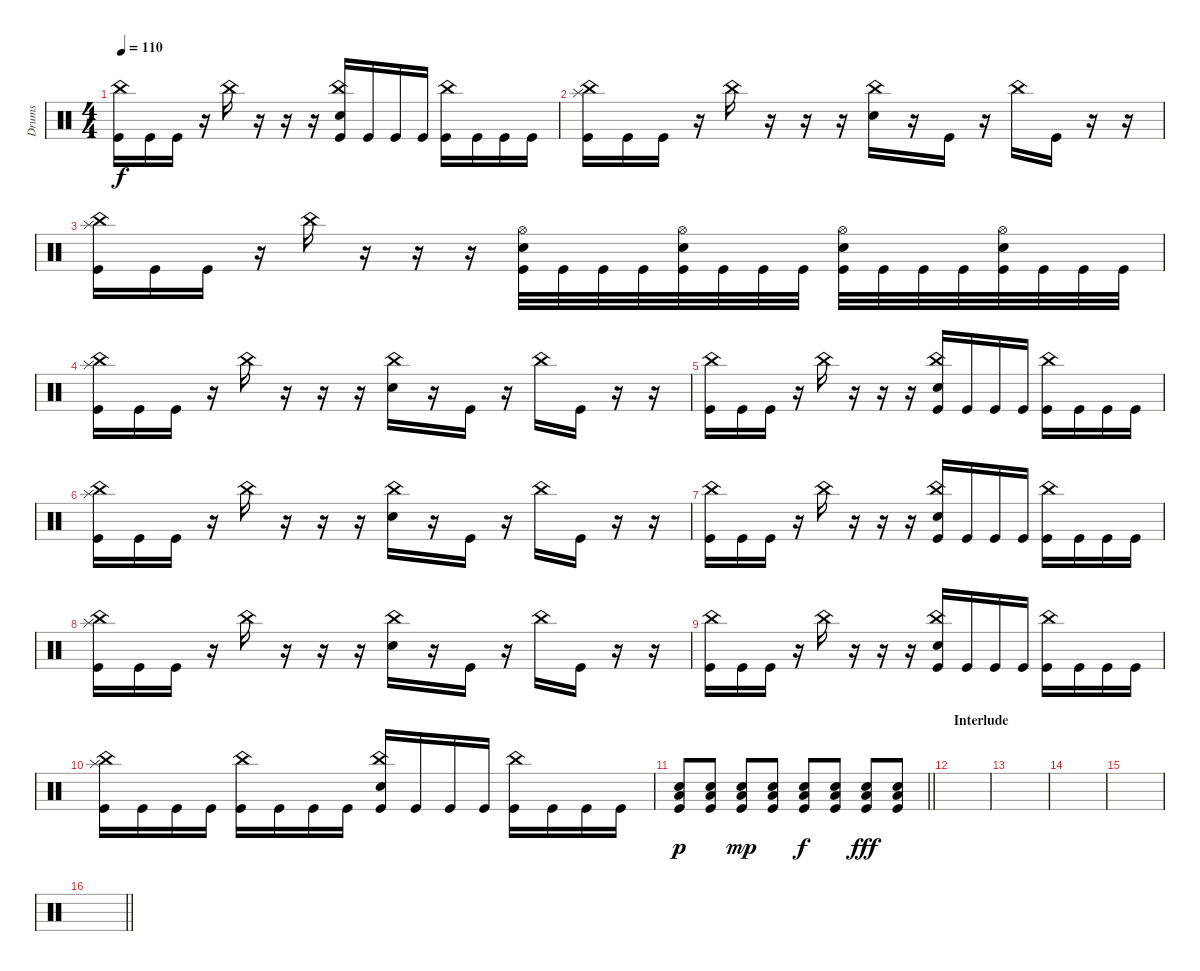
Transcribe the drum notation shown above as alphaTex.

\track ("Drums" "Drums") {instrument percussion}
\staff {score}
\articulation defaults
\ts (4 4)
\tempo 110
\clef neutral
\ks c
("Kick (hit)" "China (hit)").16{dy f} "Kick (hit)".16 "Kick (hit)".16 r.16 "China (hit)".16 r.16 r.16 r.16 ("China (hit)" "Snare (hit) 2" "Kick (hit)").16 "Kick (hit)".16 "Kick (hit)".16 "Kick (hit)".16 ("China (hit)" "Kick (hit)").16 "Kick (hit)".16 "Kick (hit)".16 "Kick (hit)".16 |
("Kick (hit)" "China (hit)" "Splash (hit)").16 "Kick (hit)".16 "Kick (hit)".16 r.16 "China (hit)".16 r.16 r.16 r.16 ("China (hit)" "Snare (hit) 2").16 r.16 "Kick (hit)".16 r.16 "China (hit)".16 "Kick (hit)".16 r.16 r.16 |
("Kick (hit)" "China (hit)" "Splash (hit)").16 "Kick (hit)".16 "Kick (hit)".16 r.16 "China (hit)".16 r.16 r.16 r.16 ("Kick (hit)" "Snare (hit) 2" "Hi-Hat (open)").32 "Kick (hit)".32 "Kick (hit)".32 "Kick (hit)".32 ("Kick (hit)" "Snare (hit) 2" "Hi-Hat (open)").32 "Kick (hit)".32 "Kick (hit)".32 "Kick (hit)".32 ("Kick (hit)" "Snare (hit) 2" "Hi-Hat (open)").32 "Kick (hit)".32 "Kick (hit)".32 "Kick (hit)".32 ("Kick (hit)" "Snare (hit) 2" "Hi-Hat (open)").32 "Kick (hit)".32 "Kick (hit)".32 "Kick (hit)".32 |
("Kick (hit)" "China (hit)" "Splash (hit)").16 "Kick (hit)".16 "Kick (hit)".16 r.16 "China (hit)".16 r.16 r.16 r.16 ("China (hit)" "Snare (hit) 2").16 r.16 "Kick (hit)".16 r.16 "China (hit)".16 "Kick (hit)".16 r.16 r.16 |
("Kick (hit)" "China (hit)").16 "Kick (hit)".16 "Kick (hit)".16 r.16 "China (hit)".16 r.16 r.16 r.16 ("China (hit)" "Snare (hit) 2" "Kick (hit)").16 "Kick (hit)".16 "Kick (hit)".16 "Kick (hit)".16 ("China (hit)" "Kick (hit)").16 "Kick (hit)".16 "Kick (hit)".16 "Kick (hit)".16 |
("Kick (hit)" "China (hit)" "Splash (hit)").16 "Kick (hit)".16 "Kick (hit)".16 r.16 "China (hit)".16 r.16 r.16 r.16 ("China (hit)" "Snare (hit) 2").16 r.16 "Kick (hit)".16 r.16 "China (hit)".16 "Kick (hit)".16 r.16 r.16 |
("Kick (hit)" "China (hit)").16 "Kick (hit)".16 "Kick (hit)".16 r.16 "China (hit)".16 r.16 r.16 r.16 ("China (hit)" "Snare (hit) 2" "Kick (hit)").16 "Kick (hit)".16 "Kick (hit)".16 "Kick (hit)".16 ("China (hit)" "Kick (hit)").16 "Kick (hit)".16 "Kick (hit)".16 "Kick (hit)".16 |
("Kick (hit)" "China (hit)" "Splash (hit)").16 "Kick (hit)".16 "Kick (hit)".16 r.16 "China (hit)".16 r.16 r.16 r.16 ("China (hit)" "Snare (hit) 2").16 r.16 "Kick (hit)".16 r.16 "China (hit)".16 "Kick (hit)".16 r.16 r.16 |
("Kick (hit)" "China (hit)").16 "Kick (hit)".16 "Kick (hit)".16 r.16 "China (hit)".16 r.16 r.16 r.16 ("China (hit)" "Snare (hit) 2" "Kick (hit)").16 "Kick (hit)".16 "Kick (hit)".16 "Kick (hit)".16 ("China (hit)" "Kick (hit)").16 "Kick (hit)".16 "Kick (hit)".16 "Kick (hit)".16 |
("Kick (hit)" "China (hit)" "Splash (hit)").16 "Kick (hit)".16 "Kick (hit)".16 "Kick (hit)".16 ("China (hit)" "Kick (hit)").16 "Kick (hit)".16 "Kick (hit)".16 "Kick (hit)".16 ("China (hit)" "Snare (hit) 2" "Kick (hit)").16 "Kick (hit)".16 "Kick (hit)".16 "Kick (hit)".16 ("China (hit)" "Kick (hit)").16 "Kick (hit)".16 "Kick (hit)".16 "Kick (hit)".16 |
\barLineRight lightlight
("Kick (hit)" "Snare (hit) 2" "Low Floor Tom (hit)").8{dy p} ("Kick (hit)" "Snare (hit) 2" "Low Floor Tom (hit)").8 ("Kick (hit)" "Snare (hit) 2" "Low Floor Tom (hit)").8{dy mp} ("Kick (hit)" "Snare (hit) 2" "Low Floor Tom (hit)").8 ("Kick (hit)" "Snare (hit) 2" "Low Floor Tom (hit)").8{dy f} ("Kick (hit)" "Snare (hit) 2" "Low Floor Tom (hit)").8 ("Kick (hit)" "Snare (hit) 2" "Low Floor Tom (hit)").8{dy fff} ("Kick (hit)" "Snare (hit) 2" "Low Floor Tom (hit)").8 |
\section ("" "Interlude")
|
|
|
|
\barLineRight lightlight
